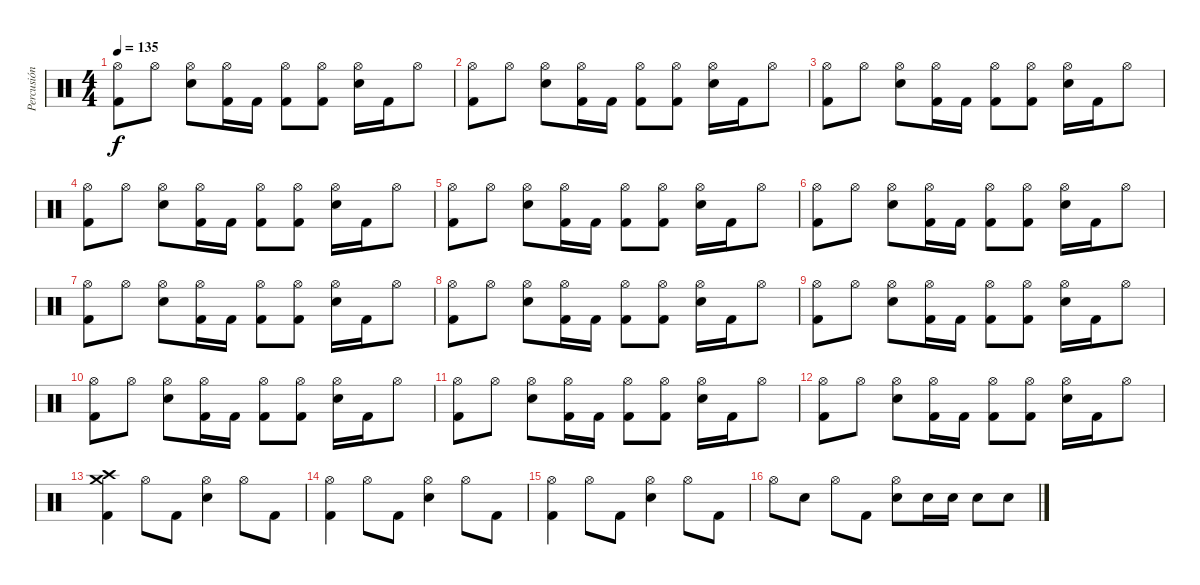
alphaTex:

\track ("Percusión" "Percusión") {instrument percussion}
\staff {score}
\articulation defaults
\ts (4 4)
\tempo 135
\clef neutral
\ks c
("Hi-Hat (open)" "Kick (hit) 2").8{dy f} "Hi-Hat (open)".8 ("Hi-Hat (open)" "Electric Snare (hit)").8 ("Hi-Hat (open)" "Kick (hit) 2").16 "Kick (hit) 2".16 ("Hi-Hat (open)" "Kick (hit) 2").8 ("Hi-Hat (open)" "Kick (hit) 2").8 ("Hi-Hat (open)" "Electric Snare (hit)").16 "Kick (hit) 2".16 "Hi-Hat (open)".8 |
("Hi-Hat (open)" "Kick (hit) 2").8 "Hi-Hat (open)".8 ("Hi-Hat (open)" "Electric Snare (hit)").8 ("Hi-Hat (open)" "Kick (hit) 2").16 "Kick (hit) 2".16 ("Hi-Hat (open)" "Kick (hit) 2").8 ("Hi-Hat (open)" "Kick (hit) 2").8 ("Hi-Hat (open)" "Electric Snare (hit)").16 "Kick (hit) 2".16 "Hi-Hat (open)".8 |
("Hi-Hat (open)" "Kick (hit) 2").8 "Hi-Hat (open)".8 ("Hi-Hat (open)" "Electric Snare (hit)").8 ("Hi-Hat (open)" "Kick (hit) 2").16 "Kick (hit) 2".16 ("Hi-Hat (open)" "Kick (hit) 2").8 ("Hi-Hat (open)" "Kick (hit) 2").8 ("Hi-Hat (open)" "Electric Snare (hit)").16 "Kick (hit) 2".16 "Hi-Hat (open)".8 |
("Hi-Hat (open)" "Kick (hit) 2").8 "Hi-Hat (open)".8 ("Hi-Hat (open)" "Electric Snare (hit)").8 ("Hi-Hat (open)" "Kick (hit) 2").16 "Kick (hit) 2".16 ("Hi-Hat (open)" "Kick (hit) 2").8 ("Hi-Hat (open)" "Kick (hit) 2").8 ("Hi-Hat (open)" "Electric Snare (hit)").16 "Kick (hit) 2".16 "Hi-Hat (open)".8 |
("Hi-Hat (open)" "Kick (hit) 2").8 "Hi-Hat (open)".8 ("Hi-Hat (open)" "Electric Snare (hit)").8 ("Hi-Hat (open)" "Kick (hit) 2").16 "Kick (hit) 2".16 ("Hi-Hat (open)" "Kick (hit) 2").8 ("Hi-Hat (open)" "Kick (hit) 2").8 ("Hi-Hat (open)" "Electric Snare (hit)").16 "Kick (hit) 2".16 "Hi-Hat (open)".8 |
("Hi-Hat (open)" "Kick (hit) 2").8 "Hi-Hat (open)".8 ("Hi-Hat (open)" "Electric Snare (hit)").8 ("Hi-Hat (open)" "Kick (hit) 2").16 "Kick (hit) 2".16 ("Hi-Hat (open)" "Kick (hit) 2").8 ("Hi-Hat (open)" "Kick (hit) 2").8 ("Hi-Hat (open)" "Electric Snare (hit)").16 "Kick (hit) 2".16 "Hi-Hat (open)".8 |
("Hi-Hat (open)" "Kick (hit) 2").8 "Hi-Hat (open)".8 ("Hi-Hat (open)" "Electric Snare (hit)").8 ("Hi-Hat (open)" "Kick (hit) 2").16 "Kick (hit) 2".16 ("Hi-Hat (open)" "Kick (hit) 2").8 ("Hi-Hat (open)" "Kick (hit) 2").8 ("Hi-Hat (open)" "Electric Snare (hit)").16 "Kick (hit) 2".16 "Hi-Hat (open)".8 |
("Hi-Hat (open)" "Kick (hit) 2").8 "Hi-Hat (open)".8 ("Hi-Hat (open)" "Electric Snare (hit)").8 ("Hi-Hat (open)" "Kick (hit) 2").16 "Kick (hit) 2".16 ("Hi-Hat (open)" "Kick (hit) 2").8 ("Hi-Hat (open)" "Kick (hit) 2").8 ("Hi-Hat (open)" "Electric Snare (hit)").16 "Kick (hit) 2".16 "Hi-Hat (open)".8 |
("Hi-Hat (open)" "Kick (hit) 2").8 "Hi-Hat (open)".8 ("Hi-Hat (open)" "Electric Snare (hit)").8 ("Hi-Hat (open)" "Kick (hit) 2").16 "Kick (hit) 2".16 ("Hi-Hat (open)" "Kick (hit) 2").8 ("Hi-Hat (open)" "Kick (hit) 2").8 ("Hi-Hat (open)" "Electric Snare (hit)").16 "Kick (hit) 2".16 "Hi-Hat (open)".8 |
("Hi-Hat (open)" "Kick (hit) 2").8 "Hi-Hat (open)".8 ("Hi-Hat (open)" "Electric Snare (hit)").8 ("Hi-Hat (open)" "Kick (hit) 2").16 "Kick (hit) 2".16 ("Hi-Hat (open)" "Kick (hit) 2").8 ("Hi-Hat (open)" "Kick (hit) 2").8 ("Hi-Hat (open)" "Electric Snare (hit)").16 "Kick (hit) 2".16 "Hi-Hat (open)".8 |
("Hi-Hat (open)" "Kick (hit) 2").8 "Hi-Hat (open)".8 ("Hi-Hat (open)" "Electric Snare (hit)").8 ("Hi-Hat (open)" "Kick (hit) 2").16 "Kick (hit) 2".16 ("Hi-Hat (open)" "Kick (hit) 2").8 ("Hi-Hat (open)" "Kick (hit) 2").8 ("Hi-Hat (open)" "Electric Snare (hit)").16 "Kick (hit) 2".16 "Hi-Hat (open)".8 |
("Hi-Hat (open)" "Kick (hit) 2").8 "Hi-Hat (open)".8 ("Hi-Hat (open)" "Electric Snare (hit)").8 ("Hi-Hat (open)" "Kick (hit) 2").16 "Kick (hit) 2".16 ("Hi-Hat (open)" "Kick (hit) 2").8 ("Hi-Hat (open)" "Kick (hit) 2").8 ("Hi-Hat (open)" "Electric Snare (hit)").16 "Kick (hit) 2".16 "Hi-Hat (open)".8 |
("Crash medium (hit)" "Crash high (hit)" "Kick (hit) 2").4 "Hi-Hat (open)".8 "Kick (hit) 2".8 ("Hi-Hat (open)" "Electric Snare (hit)").4 "Hi-Hat (open)".8 "Kick (hit) 2".8 |
("Hi-Hat (open)" "Kick (hit) 2").4 "Hi-Hat (open)".8 "Kick (hit) 2".8 ("Hi-Hat (open)" "Electric Snare (hit)").4 "Hi-Hat (open)".8 "Kick (hit) 2".8 |
("Hi-Hat (open)" "Kick (hit) 2").4 "Hi-Hat (open)".8 "Kick (hit) 2".8 ("Hi-Hat (open)" "Electric Snare (hit)").4 "Hi-Hat (open)".8 "Kick (hit) 2".8 |
"Hi-Hat (open)".8 "Electric Snare (hit)".8 "Hi-Hat (open)".8 "Kick (hit) 2".8 ("Hi-Hat (open)" "Electric Snare (hit)").8 "Electric Snare (hit)".16 "Electric Snare (hit)".16 "Electric Snare (hit)".8 "Electric Snare (hit)".8
